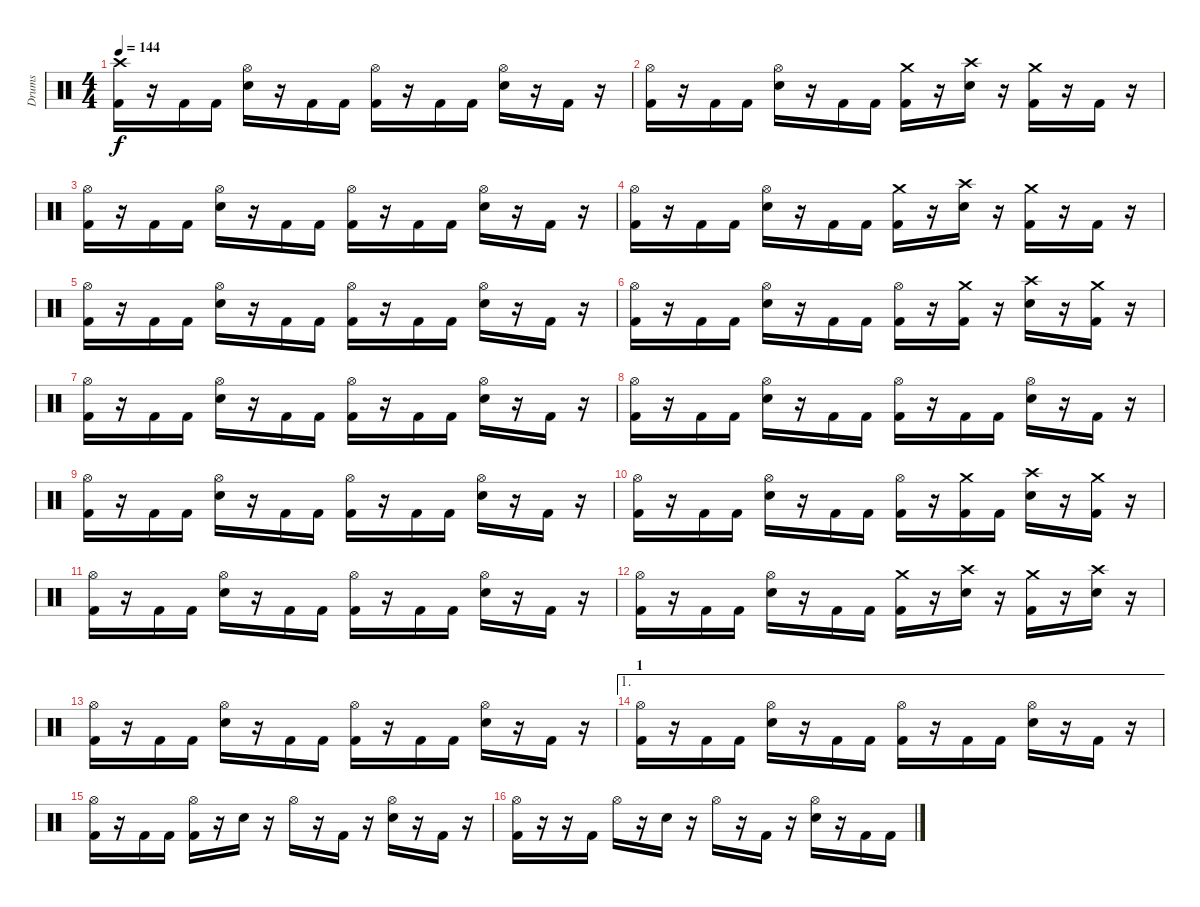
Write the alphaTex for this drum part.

\track ("Drums" "Drums") {instrument percussion}
\staff {score}
\articulation defaults
\ts (4 4)
\tempo 144
\clef neutral
\ks c
("Crash high (hit)" "Kick (hit) 2").16{dy f} r.16 "Kick (hit) 2".16 "Kick (hit) 2".16 ("Hi-Hat (open)" "Snare (hit) 2").16 r.16 "Kick (hit) 2".16 "Kick (hit) 2".16 ("Hi-Hat (open)" "Kick (hit) 2").16 r.16 "Kick (hit) 2".16 "Kick (hit) 2".16 ("Hi-Hat (open)" "Snare (hit) 2").16 r.16 "Kick (hit) 2".16 r.16 |
("Hi-Hat (open)" "Kick (hit) 2").16 r.16 "Kick (hit) 2".16 "Kick (hit) 2".16 ("Hi-Hat (open)" "Snare (hit) 2").16 r.16 "Kick (hit) 2".16 "Kick (hit) 2".16 ("Crash medium (hit)" "Kick (hit) 2").16 r.16 ("Crash high (hit)" "Snare (hit) 2").16 r.16 ("Crash medium (hit)" "Kick (hit) 2").16 r.16 "Kick (hit) 2".16 r.16 |
("Hi-Hat (open)" "Kick (hit) 2").16 r.16 "Kick (hit) 2".16 "Kick (hit) 2".16 ("Hi-Hat (open)" "Snare (hit) 2").16 r.16 "Kick (hit) 2".16 "Kick (hit) 2".16 ("Hi-Hat (open)" "Kick (hit) 2").16 r.16 "Kick (hit) 2".16 "Kick (hit) 2".16 ("Hi-Hat (open)" "Snare (hit) 2").16 r.16 "Kick (hit) 2".16 r.16 |
("Hi-Hat (open)" "Kick (hit) 2").16 r.16 "Kick (hit) 2".16 "Kick (hit) 2".16 ("Hi-Hat (open)" "Snare (hit) 2").16 r.16 "Kick (hit) 2".16 "Kick (hit) 2".16 ("Crash medium (hit)" "Kick (hit) 2").16 r.16 ("Crash high (hit)" "Snare (hit) 2").16 r.16 ("Crash medium (hit)" "Kick (hit) 2").16 r.16 "Kick (hit) 2".16 r.16 |
("Hi-Hat (open)" "Kick (hit) 2").16 r.16 "Kick (hit) 2".16 "Kick (hit) 2".16 ("Hi-Hat (open)" "Snare (hit) 2").16 r.16 "Kick (hit) 2".16 "Kick (hit) 2".16 ("Hi-Hat (open)" "Kick (hit) 2").16 r.16 "Kick (hit) 2".16 "Kick (hit) 2".16 ("Hi-Hat (open)" "Snare (hit) 2").16 r.16 "Kick (hit) 2".16 r.16 |
("Hi-Hat (open)" "Kick (hit) 2").16 r.16 "Kick (hit) 2".16 "Kick (hit) 2".16 ("Hi-Hat (open)" "Snare (hit) 2").16 r.16 "Kick (hit) 2".16 "Kick (hit) 2".16 ("Hi-Hat (open)" "Kick (hit) 2").16 r.16 ("Crash medium (hit)" "Kick (hit) 2").16 r.16 ("Crash high (hit)" "Snare (hit) 2").16 r.16 ("Crash medium (hit)" "Kick (hit) 2").16 r.16 |
("Hi-Hat (open)" "Kick (hit) 2").16 r.16 "Kick (hit) 2".16 "Kick (hit) 2".16 ("Hi-Hat (open)" "Snare (hit) 2").16 r.16 "Kick (hit) 2".16 "Kick (hit) 2".16 ("Hi-Hat (open)" "Kick (hit) 2").16 r.16 "Kick (hit) 2".16 "Kick (hit) 2".16 ("Hi-Hat (open)" "Snare (hit) 2").16 r.16 "Kick (hit) 2".16 r.16 |
("Hi-Hat (open)" "Kick (hit) 2").16 r.16 "Kick (hit) 2".16 "Kick (hit) 2".16 ("Hi-Hat (open)" "Snare (hit) 2").16 r.16 "Kick (hit) 2".16 "Kick (hit) 2".16 ("Hi-Hat (open)" "Kick (hit) 2").16 r.16 "Kick (hit) 2".16 "Kick (hit) 2".16 ("Hi-Hat (open)" "Snare (hit) 2").16 r.16 "Kick (hit) 2".16 r.16 |
("Hi-Hat (open)" "Kick (hit) 2").16 r.16 "Kick (hit) 2".16 "Kick (hit) 2".16 ("Hi-Hat (open)" "Snare (hit) 2").16 r.16 "Kick (hit) 2".16 "Kick (hit) 2".16 ("Hi-Hat (open)" "Kick (hit) 2").16 r.16 "Kick (hit) 2".16 "Kick (hit) 2".16 ("Hi-Hat (open)" "Snare (hit) 2").16 r.16 "Kick (hit) 2".16 r.16 |
("Hi-Hat (open)" "Kick (hit) 2").16 r.16 "Kick (hit) 2".16 "Kick (hit) 2".16 ("Hi-Hat (open)" "Snare (hit) 2").16 r.16 "Kick (hit) 2".16 "Kick (hit) 2".16 ("Hi-Hat (open)" "Kick (hit) 2").16 r.16 ("Crash medium (hit)" "Kick (hit) 2").16 "Kick (hit) 2".16 ("Crash high (hit)" "Snare (hit) 2").16 r.16 ("Crash medium (hit)" "Kick (hit) 2").16 r.16 |
("Hi-Hat (open)" "Kick (hit) 2").16 r.16 "Kick (hit) 2".16 "Kick (hit) 2".16 ("Hi-Hat (open)" "Snare (hit) 2").16 r.16 "Kick (hit) 2".16 "Kick (hit) 2".16 ("Hi-Hat (open)" "Kick (hit) 2").16 r.16 "Kick (hit) 2".16 "Kick (hit) 2".16 ("Hi-Hat (open)" "Snare (hit) 2").16 r.16 "Kick (hit) 2".16 r.16 |
("Hi-Hat (open)" "Kick (hit) 2").16 r.16 "Kick (hit) 2".16 "Kick (hit) 2".16 ("Hi-Hat (open)" "Snare (hit) 2").16 r.16 "Kick (hit) 2".16 "Kick (hit) 2".16 ("Crash medium (hit)" "Kick (hit) 2").16 r.16 ("Crash high (hit)" "Snare (hit) 2").16 r.16 ("Crash medium (hit)" "Kick (hit) 2").16 r.16 ("Crash high (hit)" "Snare (hit) 2").16 r.16 |
("Hi-Hat (open)" "Kick (hit) 2").16 r.16 "Kick (hit) 2".16 "Kick (hit) 2".16 ("Hi-Hat (open)" "Snare (hit) 2").16 r.16 "Kick (hit) 2".16 "Kick (hit) 2".16 ("Hi-Hat (open)" "Kick (hit) 2").16 r.16 "Kick (hit) 2".16 "Kick (hit) 2".16 ("Hi-Hat (open)" "Snare (hit) 2").16 r.16 "Kick (hit) 2".16 r.16 |
\ae 1
\section ("" "1")
("Hi-Hat (open)" "Kick (hit) 2").16 r.16 "Kick (hit) 2".16 "Kick (hit) 2".16 ("Hi-Hat (open)" "Snare (hit) 2").16 r.16 "Kick (hit) 2".16 "Kick (hit) 2".16 ("Hi-Hat (open)" "Kick (hit) 2").16 r.16 "Kick (hit) 2".16 "Kick (hit) 2".16 ("Hi-Hat (open)" "Snare (hit) 2").16 r.16 "Kick (hit) 2".16 r.16 |
("Hi-Hat (open)" "Kick (hit) 2").16 r.16 "Kick (hit) 2".16 "Kick (hit) 2".16 ("Hi-Hat (open)" "Kick (hit) 2").16 r.16 "Snare (hit) 2".16 r.16 "Hi-Hat (open)".16 r.16 "Kick (hit) 2".16 r.16 ("Hi-Hat (open)" "Snare (hit) 2").16 r.16 "Kick (hit) 2".16 r.16 |
("Hi-Hat (open)" "Kick (hit) 2").16 r.16 r.16 "Kick (hit) 2".16 "Hi-Hat (open)".16 r.16 "Snare (hit) 2".16 r.16 "Hi-Hat (open)".16 r.16 "Kick (hit) 2".16 r.16 ("Hi-Hat (open)" "Snare (hit) 2").16 r.16 "Kick (hit) 2".16 "Kick (hit) 2".16
